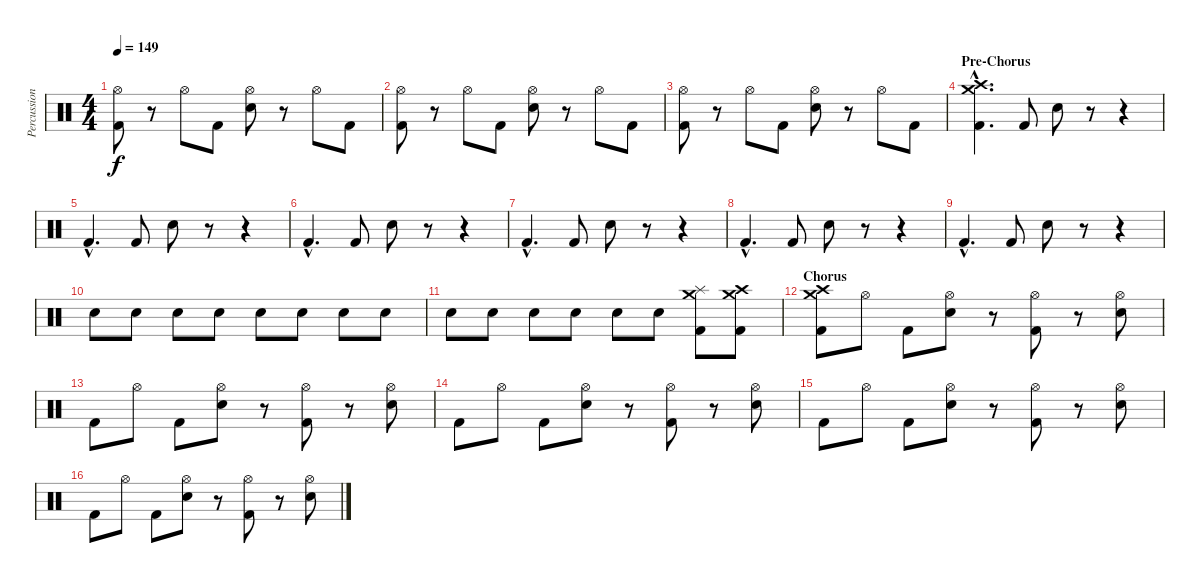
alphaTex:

\track ("Percussion" "Percussion") {instrument percussion}
\staff {score}
\articulation defaults
\ts (4 4)
\tempo 149
\clef neutral
\ks c
("Hi-Hat (open)" "Kick (hit) 2").8{dy f} r.8 "Hi-Hat (open)".8 "Kick (hit) 2".8 ("Hi-Hat (open)" "Snare (hit) 2").8 r.8 "Hi-Hat (open)".8 "Kick (hit) 2".8 |
("Hi-Hat (open)" "Kick (hit) 2").8 r.8 "Hi-Hat (open)".8 "Kick (hit) 2".8 ("Hi-Hat (open)" "Snare (hit) 2").8 r.8 "Hi-Hat (open)".8 "Kick (hit) 2".8 |
("Hi-Hat (open)" "Kick (hit) 2").8 r.8 "Hi-Hat (open)".8 "Kick (hit) 2".8 ("Hi-Hat (open)" "Snare (hit) 2").8 r.8 "Hi-Hat (open)".8 "Kick (hit) 2".8 |
\section ("" "Pre-Chorus")
("Crash medium (hit)"{hac} "Crash high (hit)"{hac} "Kick (hit) 2"{hac}).4{d} "Kick (hit) 2".8 "Snare (hit) 2".8 r.8 r.4 |
"Kick (hit) 2"{hac}.4{d} "Kick (hit) 2".8 "Snare (hit) 2".8 r.8 r.4 |
"Kick (hit) 2"{hac}.4{d} "Kick (hit) 2".8 "Snare (hit) 2".8 r.8 r.4 |
"Kick (hit) 2"{hac}.4{d} "Kick (hit) 2".8 "Snare (hit) 2".8 r.8 r.4 |
"Kick (hit) 2"{hac}.4{d} "Kick (hit) 2".8 "Snare (hit) 2".8 r.8 r.4 |
"Kick (hit) 2"{hac}.4{d} "Kick (hit) 2".8 "Snare (hit) 2".8 r.8 r.4 |
"Snare (hit) 2".8 "Snare (hit) 2".8 "Snare (hit) 2".8 "Snare (hit) 2".8 "Snare (hit) 2".8 "Snare (hit) 2".8 "Snare (hit) 2".8 "Snare (hit) 2".8 |
"Snare (hit) 2".8 "Snare (hit) 2".8 "Snare (hit) 2".8 "Snare (hit) 2".8 "Snare (hit) 2".8 "Snare (hit) 2".8 ("Crash medium (hit)" "Splash (hit)" "Kick (hit) 2").8 ("Crash high (hit)" "Crash medium (hit)" "Kick (hit) 2").8 |
\section ("" "Chorus")
("Crash medium (hit)" "Crash high (hit)" "Kick (hit) 2").8 "Hi-Hat (open)".8 "Kick (hit) 2".8 ("Hi-Hat (open)" "Snare (hit) 2").8 r.8 ("Hi-Hat (open)" "Kick (hit) 2").8 r.8 ("Hi-Hat (open)" "Snare (hit) 2").8 |
"Kick (hit) 2".8 "Hi-Hat (open)".8 "Kick (hit) 2".8 ("Hi-Hat (open)" "Snare (hit) 2").8 r.8 ("Hi-Hat (open)" "Kick (hit) 2").8 r.8 ("Hi-Hat (open)" "Snare (hit) 2").8 |
"Kick (hit) 2".8 "Hi-Hat (open)".8 "Kick (hit) 2".8 ("Hi-Hat (open)" "Snare (hit) 2").8 r.8 ("Hi-Hat (open)" "Kick (hit) 2").8 r.8 ("Hi-Hat (open)" "Snare (hit) 2").8 |
"Kick (hit) 2".8 "Hi-Hat (open)".8 "Kick (hit) 2".8 ("Hi-Hat (open)" "Snare (hit) 2").8 r.8 ("Hi-Hat (open)" "Kick (hit) 2").8 r.8 ("Hi-Hat (open)" "Snare (hit) 2").8 |
"Kick (hit) 2".8 "Hi-Hat (open)".8 "Kick (hit) 2".8 ("Hi-Hat (open)" "Snare (hit) 2").8 r.8 ("Hi-Hat (open)" "Kick (hit) 2").8 r.8 ("Hi-Hat (open)" "Snare (hit) 2").8
